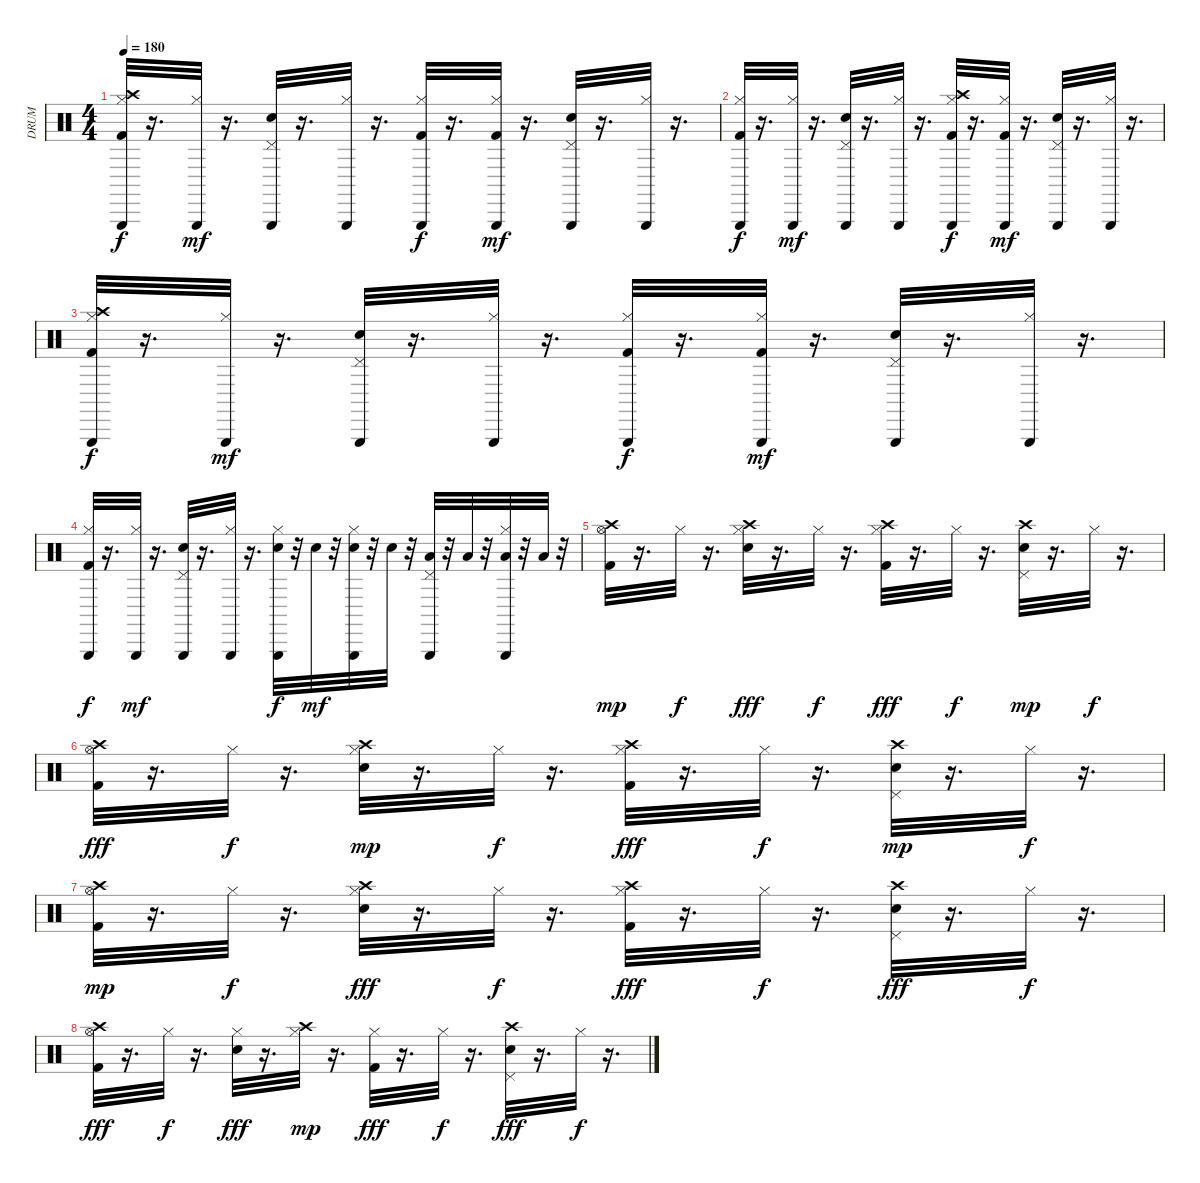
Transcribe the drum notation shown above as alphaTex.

\track ("DRUM" "DRUM") {instrument percussion}
\staff {score}
\articulation defaults
\ts (4 4)
\tempo 180
\clef neutral
\ks c
("Hi-Hat (closed)" "Kick (hit) 2" "Triangle (hit)" "Crash high (hit)").32{dy f} r.16{d} ("Triangle (hit)" "Hi-Hat (closed)").32{dy mf} r.16{d} ("Triangle (hit)" "Pedal Hi-Hat (hit)" "Snare (hit) 2").32 r.16{d} ("Triangle (hit)" "Hi-Hat (closed)").32 r.16{d} ("Hi-Hat (closed)" "Kick (hit) 2" "Triangle (hit)").32{dy f} r.16{d} ("Hi-Hat (closed)" "Kick (hit) 2" "Triangle (hit)").32{dy mf} r.16{d} ("Pedal Hi-Hat (hit)" "Triangle (hit)" "Snare (hit) 2").32 r.16{d} ("Hi-Hat (closed)" "Triangle (hit)").32 r.16{d} |
("Hi-Hat (closed)" "Triangle (hit)" "Kick (hit) 2").32{dy f} r.16{d} ("Triangle (hit)" "Hi-Hat (closed)").32{dy mf} r.16{d} ("Triangle (hit)" "Pedal Hi-Hat (hit)" "Snare (hit) 2").32 r.16{d} ("Triangle (hit)" "Hi-Hat (closed)").32 r.16{d} ("Hi-Hat (closed)" "Kick (hit) 2" "Triangle (hit)" "Crash high (hit)").32{dy f} r.16{d} ("Kick (hit) 2" "Hi-Hat (closed)" "Triangle (hit)").32{dy mf} r.16{d} ("Pedal Hi-Hat (hit)" "Snare (hit) 2" "Triangle (hit)").32 r.16{d} ("Triangle (hit)" "Hi-Hat (closed)").32 r.16{d} |
("Triangle (hit)" "Kick (hit) 2" "Hi-Hat (closed)" "Crash high (hit)").32{dy f} r.16{d} ("Triangle (hit)" "Hi-Hat (closed)").32{dy mf} r.16{d} ("Snare (hit) 2" "Pedal Hi-Hat (hit)" "Triangle (hit)").32 r.16{d} ("Hi-Hat (closed)" "Triangle (hit)").32 r.16{d} ("Hi-Hat (closed)" "Triangle (hit)" "Kick (hit) 2").32{dy f} r.16{d} ("Hi-Hat (closed)" "Triangle (hit)" "Kick (hit) 2").32{dy mf} r.16{d} ("Triangle (hit)" "Snare (hit) 2" "Pedal Hi-Hat (hit)").32 r.16{d} ("Triangle (hit)" "Hi-Hat (closed)").32 r.16{d} |
("Triangle (hit)" "Hi-Hat (closed)" "Kick (hit) 2").32{dy f} r.16{d} ("Triangle (hit)" "Hi-Hat (closed)").32{dy mf} r.16{d} ("Triangle (hit)" "Pedal Hi-Hat (hit)" "Snare (hit) 2").32 r.16{d} ("Triangle (hit)" "Hi-Hat (closed)").32 r.16{d} ("Triangle (hit)" "Hi-Hat (closed)" "Snare (hit) 2").32{dy f} r.32 "Snare (hit) 2".32{dy mf} r.32 ("Hi-Hat (closed)" "Snare (hit) 2" "Triangle (hit)").32 r.32 "Snare (hit) 2".32 r.32 ("Low Floor Tom (hit)" "Triangle (hit)" "Pedal Hi-Hat (hit)").32 r.32 "Low Floor Tom (hit)".32 r.32 ("Triangle (hit)" "Hi-Hat (closed)" "Low Floor Tom (hit)").32 r.32 "Low Floor Tom (hit)".32 r.32 |
("Hi-Hat (open)" "Crash high (hit)" "Kick (hit) 2").32{dy mp} r.16{d} "Hi-Hat (closed)".32{dy f} r.16{d} ("Crash high (hit)" "Hi-Hat (closed)" "Snare (hit) 2").32{dy fff} r.16{d} "Hi-Hat (closed)".32{dy f} r.16{d} ("Kick (hit) 2" "Crash high (hit)" "Hi-Hat (closed)").32{dy fff} r.16{d} "Hi-Hat (closed)".32{dy f} r.16{d} ("Pedal Hi-Hat (hit)" "Snare (hit) 2" "Crash high (hit)").32{dy mp} r.16{d} "Hi-Hat (closed)".32{dy f} r.16{d} |
("Crash high (hit)" "Hi-Hat (open)" "Kick (hit) 2").32{dy fff} r.16{d} "Hi-Hat (closed)".32{dy f} r.16{d} ("Snare (hit) 2" "Hi-Hat (closed)" "Crash high (hit)").32{dy mp} r.16{d} "Hi-Hat (closed)".32{dy f} r.16{d} ("Crash high (hit)" "Hi-Hat (closed)" "Kick (hit) 2").32{dy fff} r.16{d} "Hi-Hat (closed)".32{dy f} r.16{d} ("Pedal Hi-Hat (hit)" "Snare (hit) 2" "Crash high (hit)").32{dy mp} r.16{d} "Hi-Hat (closed)".32{dy f} r.16{d} |
("Hi-Hat (open)" "Crash high (hit)" "Kick (hit) 2").32{dy mp} r.16{d} "Hi-Hat (closed)".32{dy f} r.16{d} ("Crash high (hit)" "Snare (hit) 2" "Hi-Hat (closed)").32{dy fff} r.16{d} "Hi-Hat (closed)".32{dy f} r.16{d} ("Kick (hit) 2" "Crash high (hit)" "Hi-Hat (closed)").32{dy fff} r.16{d} "Hi-Hat (closed)".32{dy f} r.16{d} ("Snare (hit) 2" "Crash high (hit)" "Pedal Hi-Hat (hit)").32{dy fff} r.16{d} "Hi-Hat (closed)".32{dy f} r.16{d} |
("Crash high (hit)" "Hi-Hat (open)" "Kick (hit) 2").32{dy fff} r.16{d} "Hi-Hat (closed)".32{dy f} r.16{d} ("Snare (hit) 2" "Hi-Hat (closed)").32{dy fff} r.16{d} ("Hi-Hat (closed)" "Crash high (hit)").32{dy mp} r.16{d} ("Kick (hit) 2" "Hi-Hat (closed)").32{dy fff} r.16{d} "Hi-Hat (closed)".32{dy f} r.16{d} ("Crash high (hit)" "Pedal Hi-Hat (hit)" "Snare (hit) 2").32{dy fff} r.16{d} "Hi-Hat (closed)".32{dy f} r.16{d}
